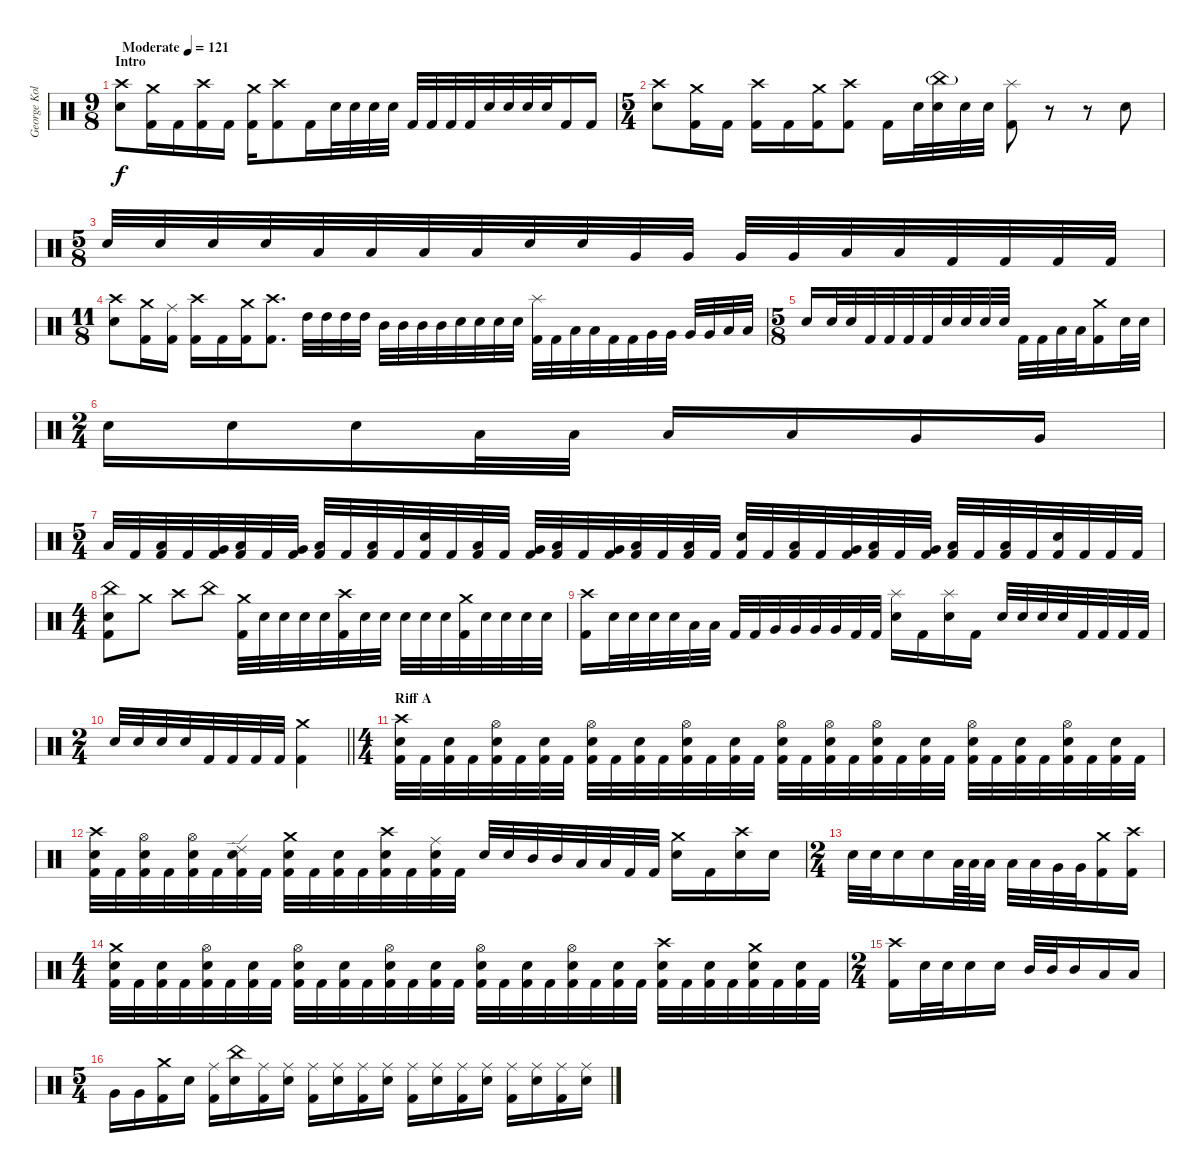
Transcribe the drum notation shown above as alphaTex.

\track ("George Kollias" "George Kol") {instrument percussion}
\staff {score}
\articulation defaults
\ts (9 8)
\section ("" "Intro")
\tempo (121 "Moderate")
\clef neutral
\ks c
("Crash high (hit)" "Electric Snare (hit)").8{dy f} ("Crash medium (hit)" "Kick (hit) 2").16 "Kick (hit) 2".16 ("Crash high (hit)" "Kick (hit) 2").16 "Kick (hit) 2".16 ("Crash medium (hit)" "Kick (hit) 2").16 ("Crash high (hit)" "Kick (hit) 2").8 "Kick (hit) 2".16 "Electric Snare (hit)".32 "Electric Snare (hit)".32 "Electric Snare (hit)".32 "Electric Snare (hit)".32 "Kick (hit) 2".32 "Kick (hit) 2".32 "Kick (hit) 2".32 "Kick (hit) 2".32 "Electric Snare (hit)".32 "Electric Snare (hit)".32 "Electric Snare (hit)".32 "Electric Snare (hit)".32 "Kick (hit) 2".16 "Kick (hit) 2".16 |
\ts (5 4)
("Crash high (hit)" "Electric Snare (hit)").8 ("Crash medium (hit)" "Kick (hit) 2").16 "Kick (hit) 2".16 ("Crash high (hit)" "Kick (hit) 2").16 "Kick (hit) 2".16 ("Crash medium (hit)" "Kick (hit) 2").16 ("Crash high (hit)" "Kick (hit) 2").8 "Kick (hit) 2".16 "Electric Snare (hit)".32 ("China (hit)"{g} "Electric Snare (hit)").32 "Electric Snare (hit)".32 "Electric Snare (hit)".32 ("Splash (hit)" "Kick (hit) 2").8 r.8 r.8 "Electric Snare (hit)".8 |
\ts (5 8)
"Electric Snare (hit)".32 "Electric Snare (hit)".32 "Electric Snare (hit)".32 "Electric Snare (hit)".32 "Low Tom (hit)".32 "Low Tom (hit)".32 "Low Tom (hit)".32 "Low Tom (hit)".32 "Electric Snare (hit)".32 "Electric Snare (hit)".32 "Very Low Tom (hit)".32 "Very Low Tom (hit)".32 "Very Low Tom (hit)".32 "Very Low Tom (hit)".32 "Low Floor Tom (hit)".32 "Low Floor Tom (hit)".32 "Kick (hit) 2".32 "Kick (hit) 2".32 "Kick (hit) 2".32 "Kick (hit) 2".32 |
\ts (11 8)
("Crash high (hit)" "Electric Snare (hit)").8 ("Crash medium (hit)" "Kick (hit) 2").16 ("Ride (middle)" "Kick (hit) 2").16 ("Crash high (hit)" "Kick (hit) 2").16 "Kick (hit) 2".16 ("Crash medium (hit)" "Kick (hit) 2").16 ("Crash high (hit)" "Kick (hit) 2").8{d} "High Tom (hit)".32 "High Tom (hit)".32 "High Tom (hit)".32 "High Tom (hit)".32 "Mid Tom (hit)".32 "Mid Tom (hit)".32 "Mid Tom (hit)".32 "Mid Tom (hit)".32 "Electric Snare (hit)".32 "Electric Snare (hit)".32 "Electric Snare (hit)".32 "Electric Snare (hit)".32 ("Splash (hit)" "Kick (hit) 2").32 "Kick (hit) 2".32 "Low Tom (hit)".32 "Low Tom (hit)".32 "Kick (hit) 2".32 "Kick (hit) 2".32 "Very Low Tom (hit)".32 "Very Low Tom (hit)".32 "Very Low Tom (hit)".32 "Very Low Tom (hit)".32 "Low Floor Tom (hit)".32 "Low Floor Tom (hit)".32 |
\ts (5 8)
"Electric Snare (hit)".16 "Electric Snare (hit)".32 "Electric Snare (hit)".32 "Kick (hit) 2".32 "Kick (hit) 2".32 "Kick (hit) 2".32 "Kick (hit) 2".32 "Electric Snare (hit)".32 "Electric Snare (hit)".32 "Electric Snare (hit)".32 "Electric Snare (hit)".32 "Kick (hit) 2".32 "Kick (hit) 2".32 "Low Floor Tom (hit)".32 "Low Floor Tom (hit)".32 ("Crash medium (hit)" "Kick (hit) 2").16 "Electric Snare (hit)".32 "Electric Snare (hit)".32 |
\ts (2 4)
"Electric Snare (hit)".16 "Electric Snare (hit)".16 "Electric Snare (hit)".16 "Low Tom (hit)".32 "Low Tom (hit)".32 "Low Tom (hit)".16 "Low Tom (hit)".16 "Very Low Tom (hit)".16 "Very Low Tom (hit)".16 |
\ts (5 4)
"Low Floor Tom (hit)".32 "Kick (hit) 2".32 ("Low Tom (hit)" "Kick (hit) 2").32 "Kick (hit) 2".32 ("Very Low Tom (hit)" "Kick (hit) 2").32 ("Low Floor Tom (hit)" "Kick (hit) 2").32 "Kick (hit) 2".32 ("Very Low Tom (hit)" "Kick (hit) 2").32 ("Low Floor Tom (hit)" "Kick (hit) 2").32 "Kick (hit) 2".32 ("Low Floor Tom (hit)" "Kick (hit) 2").32 "Kick (hit) 2".32 ("Electric Snare (hit)" "Kick (hit) 2").32 "Kick (hit) 2".32 ("Low Tom (hit)" "Kick (hit) 2").32 "Kick (hit) 2".32 ("Very Low Tom (hit)" "Kick (hit) 2").32 ("Low Floor Tom (hit)" "Kick (hit) 2").32 "Kick (hit) 2".32 ("Very Low Tom (hit)" "Kick (hit) 2").32 ("Low Floor Tom (hit)" "Kick (hit) 2").32 "Kick (hit) 2".32 ("Low Floor Tom (hit)" "Kick (hit) 2").32 "Kick (hit) 2".32 ("Electric Snare (hit)" "Kick (hit) 2").32 "Kick (hit) 2".32 ("Low Tom (hit)" "Kick (hit) 2").32 "Kick (hit) 2".32 ("Very Low Tom (hit)" "Kick (hit) 2").32 ("Low Floor Tom (hit)" "Kick (hit) 2").32 "Kick (hit) 2".32 ("Very Low Tom (hit)" "Kick (hit) 2").32 ("Low Floor Tom (hit)" "Kick (hit) 2").32 "Kick (hit) 2".32 ("Low Floor Tom (hit)" "Kick (hit) 2").32 "Kick (hit) 2".32 ("Electric Snare (hit)" "Kick (hit) 2").32 "Kick (hit) 2".32 "Kick (hit) 2".32 "Kick (hit) 2".32 |
\ts (4 4)
("China (hit)" "Electric Snare (hit)" "Kick (hit) 2").8 "Crash medium (hit)".8 "Crash high (hit)".8 "China (hit)".8 ("Crash medium (hit)" "Kick (hit) 2").32 "Electric Snare (hit)".32 "Electric Snare (hit)".32 "Electric Snare (hit)".32 "Electric Snare (hit)".32 ("Crash high (hit)" "Kick (hit) 2").32 "Electric Snare (hit)".32 "Electric Snare (hit)".32 "Electric Snare (hit)".32 "Electric Snare (hit)".32 "Electric Snare (hit)".32 ("Crash medium (hit)" "Kick (hit) 2").32 "Electric Snare (hit)".32 "Electric Snare (hit)".32 "Electric Snare (hit)".32 "Electric Snare (hit)".32 |
("Crash high (hit)" "Kick (hit) 2").16 "Electric Snare (hit)".32 "Electric Snare (hit)".32 "Electric Snare (hit)".32 "Electric Snare (hit)".32 "Low Tom (hit)".32 "Low Tom (hit)".32 "Kick (hit) 2".32 "Kick (hit) 2".32 "Very Low Tom (hit)".32 "Very Low Tom (hit)".32 "Very Low Tom (hit)".32 "Very Low Tom (hit)".32 "Kick (hit) 2".32 "Kick (hit) 2".32 ("Splash (hit)" "Electric Snare (hit)").16 "Kick (hit) 2".16 ("Splash (hit)" "Electric Snare (hit)").16 "Kick (hit) 2".16 "Electric Snare (hit)".32 "Electric Snare (hit)".32 "Electric Snare (hit)".32 "Electric Snare (hit)".32 "Kick (hit) 2".32 "Kick (hit) 2".32 "Kick (hit) 2".32 "Kick (hit) 2".32 |
\ts (2 4)
\barLineRight lightlight "Electric Snare (hit)".32 "Electric Snare (hit)".32 "Electric Snare (hit)".32 "Electric Snare (hit)".32 "Kick (hit) 2".32 "Kick (hit) 2".32 "Kick (hit) 2".32 "Kick (hit) 2".32
("Crash medium (hit)" "Kick (hit) 2").4 |
\ts (4 4)
\section ("" "Riff A")
("Crash high (hit)" "Electric Snare (hit)" "Kick (hit) 2").32 "Kick (hit) 2".32 ("Electric Snare (hit)" "Kick (hit) 2").32 "Kick (hit) 2".32 ("Hi-Hat (open)" "Electric Snare (hit)" "Kick (hit) 2").32 "Kick (hit) 2".32 ("Electric Snare (hit)" "Kick (hit) 2").32 "Kick (hit) 2".32 ("Hi-Hat (open)" "Electric Snare (hit)" "Kick (hit) 2").32 "Kick (hit) 2".32 ("Electric Snare (hit)" "Kick (hit) 2").32 "Kick (hit) 2".32 ("Hi-Hat (open)" "Electric Snare (hit)" "Kick (hit) 2").32 "Kick (hit) 2".32 ("Electric Snare (hit)" "Kick (hit) 2").32 "Kick (hit) 2".32 ("Hi-Hat (open)" "Electric Snare (hit)" "Kick (hit) 2").32 "Kick (hit) 2".32 ("Hi-Hat (open)" "Electric Snare (hit)" "Kick (hit) 2").32 "Kick (hit) 2".32 ("Hi-Hat (open)" "Electric Snare (hit)" "Kick (hit) 2").32 "Kick (hit) 2".32 ("Electric Snare (hit)" "Kick (hit) 2").32 "Kick (hit) 2".32 ("Hi-Hat (open)" "Electric Snare (hit)" "Kick (hit) 2").32 "Kick (hit) 2".32 ("Electric Snare (hit)" "Kick (hit) 2").32 "Kick (hit) 2".32 ("Hi-Hat (open)" "Electric Snare (hit)" "Kick (hit) 2").32 "Kick (hit) 2".32 ("Electric Snare (hit)" "Kick (hit) 2").32 "Kick (hit) 2".32 |
("Crash high (hit)" "Electric Snare (hit)" "Kick (hit) 2").32 "Kick (hit) 2".32 ("Hi-Hat (open)" "Electric Snare (hit)" "Kick (hit) 2").32 "Kick (hit) 2".32 ("Hi-Hat (open)" "Electric Snare (hit)" "Kick (hit) 2").32 "Kick (hit) 2".32 ("Ride (edge) 2" "Electric Snare (hit)" "Kick (hit) 2").32 "Kick (hit) 2".32 ("Crash medium (hit)" "Electric Snare (hit)" "Kick (hit) 2").32 "Kick (hit) 2".32 ("Electric Snare (hit)" "Kick (hit) 2").32 "Kick (hit) 2".32 ("Crash high (hit)" "Electric Snare (hit)" "Kick (hit) 2").32 "Kick (hit) 2".32 ("Ride (middle)" "Electric Snare (hit)" "Kick (hit) 2").32 "Kick (hit) 2".32 "Electric Snare (hit)".32 "Electric Snare (hit)".32 "Mid Tom (hit)".32 "Mid Tom (hit)".32 "Low Tom (hit)".32 "Low Tom (hit)".32 "Kick (hit) 2".32 "Kick (hit) 2".32 ("Crash medium (hit)" "Electric Snare (hit)").16 "Kick (hit) 2".16 ("Crash high (hit)" "Electric Snare (hit)").16 "Snare (hit) 2".16 |
\ts (2 4)
"Electric Snare (hit)".32 "Electric Snare (hit)".32 "Electric Snare (hit)".16 "Electric Snare (hit)".16 "Low Tom (hit)".64 "Low Tom (hit)".64 "Low Tom (hit)".32 "Low Tom (hit)".32 "Low Tom (hit)".32 "Very Low Tom (hit)".32 "Very Low Tom (hit)".32 ("Crash medium (hit)" "Kick (hit) 2").16 ("Crash high (hit)" "Kick (hit) 2").16 |
\ts (4 4)
("Crash medium (hit)" "Electric Snare (hit)" "Kick (hit) 2").32 "Kick (hit) 2".32 ("Electric Snare (hit)" "Kick (hit) 2").32 "Kick (hit) 2".32 ("Hi-Hat (open)" "Electric Snare (hit)" "Kick (hit) 2").32 "Kick (hit) 2".32 ("Electric Snare (hit)" "Kick (hit) 2").32 "Kick (hit) 2".32 ("Hi-Hat (open)" "Electric Snare (hit)" "Kick (hit) 2").32 "Kick (hit) 2".32 ("Electric Snare (hit)" "Kick (hit) 2").32 "Kick (hit) 2".32 ("Hi-Hat (open)" "Electric Snare (hit)" "Kick (hit) 2").32 "Kick (hit) 2".32 ("Electric Snare (hit)" "Kick (hit) 2").32 "Kick (hit) 2".32 ("Hi-Hat (open)" "Electric Snare (hit)" "Kick (hit) 2").32 "Kick (hit) 2".32 ("Electric Snare (hit)" "Kick (hit) 2").32 "Kick (hit) 2".32 ("Hi-Hat (open)" "Electric Snare (hit)" "Kick (hit) 2").32 "Kick (hit) 2".32 ("Electric Snare (hit)" "Kick (hit) 2").32 "Kick (hit) 2".32 ("Crash high (hit)" "Electric Snare (hit)" "Kick (hit) 2").32 "Kick (hit) 2".32 ("Electric Snare (hit)" "Kick (hit) 2").32 "Kick (hit) 2".32 ("Crash medium (hit)" "Electric Snare (hit)" "Kick (hit) 2").32 "Kick (hit) 2".32 ("Electric Snare (hit)" "Kick (hit) 2").32 "Kick (hit) 2".32 |
\ts (2 4)
("Crash high (hit)" "Kick (hit) 2").16 "Electric Snare (hit)".32 "Electric Snare (hit)".32 "Electric Snare (hit)".16 "Electric Snare (hit)".16 "Mid Tom (hit)".32 "Mid Tom (hit)".32 "Mid Tom (hit)".16 "Low Tom (hit)".16 "Low Tom (hit)".16 |
\ts (5 4)
"Very Low Tom (hit)".16 "Very Low Tom (hit)".16 ("Crash medium (hit)" "Kick (hit) 2").16 "Electric Snare (hit)".16 ("Ride (middle)" "Kick (hit) 2").16 ("China (hit)" "Electric Snare (hit)").16 ("Ride (middle)" "Kick (hit) 2").16 ("Ride (middle)" "Electric Snare (hit)").16 ("Ride (middle)" "Kick (hit) 2").16 ("Ride (middle)" "Electric Snare (hit)").16 ("Ride (middle)" "Kick (hit) 2").16 ("Ride (middle)" "Electric Snare (hit)").16 ("Ride (middle)" "Kick (hit) 2").16 ("Ride (middle)" "Electric Snare (hit)").16 ("Ride (middle)" "Kick (hit) 2").16 ("Ride (middle)" "Electric Snare (hit)").16 ("Ride (middle)" "Kick (hit) 2").16 ("Ride (middle)" "Electric Snare (hit)").16 ("Ride (middle)" "Kick (hit) 2").16 ("Ride (middle)" "Electric Snare (hit)").16
